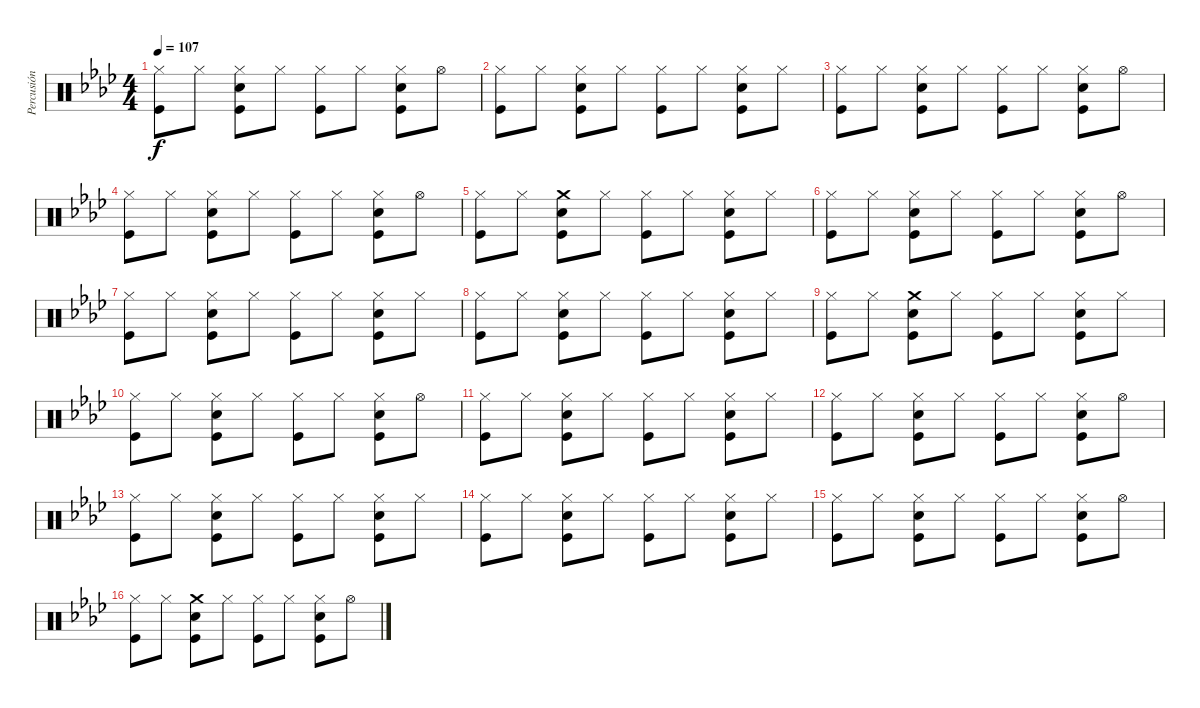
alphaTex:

\track ("Percusión" "Percusión") {instrument percussion}
\staff {score}
\articulation defaults
\ts (4 4)
\tempo 107
\clef neutral
\ks ab
("Hi-Hat (closed)" "Kick (hit)").8{dy f} "Hi-Hat (closed)".8 ("Hi-Hat (closed)" "Snare (hit) 2" "Kick (hit)").8 "Hi-Hat (closed)".8 ("Hi-Hat (closed)" "Kick (hit)").8 "Hi-Hat (closed)".8 ("Hi-Hat (closed)" "Snare (hit) 2" "Kick (hit)").8 "Hi-Hat (open)".8 |
("Hi-Hat (closed)" "Kick (hit)").8 "Hi-Hat (closed)".8 ("Hi-Hat (closed)" "Snare (hit) 2" "Kick (hit)").8 "Hi-Hat (closed)".8 ("Hi-Hat (closed)" "Kick (hit)").8 "Hi-Hat (closed)".8 ("Hi-Hat (closed)" "Snare (hit) 2" "Kick (hit)").8 "Hi-Hat (closed)".8 |
("Hi-Hat (closed)" "Kick (hit)").8 "Hi-Hat (closed)".8 ("Hi-Hat (closed)" "Snare (hit) 2" "Kick (hit)").8 "Hi-Hat (closed)".8 ("Hi-Hat (closed)" "Kick (hit)").8 "Hi-Hat (closed)".8 ("Hi-Hat (closed)" "Snare (hit) 2" "Kick (hit)").8 "Hi-Hat (open)".8 |
("Hi-Hat (closed)" "Kick (hit)").8 "Hi-Hat (closed)".8 ("Hi-Hat (closed)" "Snare (hit) 2" "Kick (hit)").8 "Hi-Hat (closed)".8 ("Hi-Hat (closed)" "Kick (hit)").8 "Hi-Hat (closed)".8 ("Hi-Hat (closed)" "Snare (hit) 2" "Kick (hit)").8 "Hi-Hat (open)".8 |
("Hi-Hat (closed)" "Kick (hit)").8 "Hi-Hat (closed)".8 ("Crash medium (hit)" "Snare (hit) 2" "Kick (hit)").8 "Hi-Hat (closed)".8 ("Hi-Hat (closed)" "Kick (hit)").8 "Hi-Hat (closed)".8 ("Hi-Hat (closed)" "Snare (hit) 2" "Kick (hit)").8 "Hi-Hat (closed)".8 |
("Hi-Hat (closed)" "Kick (hit)").8 "Hi-Hat (closed)".8 ("Hi-Hat (closed)" "Snare (hit) 2" "Kick (hit)").8 "Hi-Hat (closed)".8 ("Hi-Hat (closed)" "Kick (hit)").8 "Hi-Hat (closed)".8 ("Hi-Hat (closed)" "Snare (hit) 2" "Kick (hit)").8 "Hi-Hat (open)".8 |
("Hi-Hat (closed)" "Kick (hit)").8 "Hi-Hat (closed)".8 ("Hi-Hat (closed)" "Snare (hit) 2" "Kick (hit)").8 "Hi-Hat (closed)".8 ("Hi-Hat (closed)" "Kick (hit)").8 "Hi-Hat (closed)".8 ("Hi-Hat (closed)" "Snare (hit) 2" "Kick (hit)").8 "Hi-Hat (closed)".8 |
("Hi-Hat (closed)" "Kick (hit)").8 "Hi-Hat (closed)".8 ("Hi-Hat (closed)" "Snare (hit) 2" "Kick (hit)").8 "Hi-Hat (closed)".8 ("Hi-Hat (closed)" "Kick (hit)").8 "Hi-Hat (closed)".8 ("Hi-Hat (closed)" "Snare (hit) 2" "Kick (hit)").8 "Hi-Hat (closed)".8 |
("Hi-Hat (closed)" "Kick (hit)").8 "Hi-Hat (closed)".8 ("Crash medium (hit)" "Snare (hit) 2" "Kick (hit)").8 "Hi-Hat (closed)".8 ("Hi-Hat (closed)" "Kick (hit)").8 "Hi-Hat (closed)".8 ("Hi-Hat (closed)" "Snare (hit) 2" "Kick (hit)").8 "Hi-Hat (closed)".8 |
("Hi-Hat (closed)" "Kick (hit)").8 "Hi-Hat (closed)".8 ("Hi-Hat (closed)" "Snare (hit) 2" "Kick (hit)").8 "Hi-Hat (closed)".8 ("Hi-Hat (closed)" "Kick (hit)").8 "Hi-Hat (closed)".8 ("Hi-Hat (closed)" "Snare (hit) 2" "Kick (hit)").8 "Hi-Hat (open)".8 |
("Hi-Hat (closed)" "Kick (hit)").8 "Hi-Hat (closed)".8 ("Hi-Hat (closed)" "Snare (hit) 2" "Kick (hit)").8 "Hi-Hat (closed)".8 ("Hi-Hat (closed)" "Kick (hit)").8 "Hi-Hat (closed)".8 ("Hi-Hat (closed)" "Snare (hit) 2" "Kick (hit)").8 "Hi-Hat (closed)".8 |
("Hi-Hat (closed)" "Kick (hit)").8 "Hi-Hat (closed)".8 ("Hi-Hat (closed)" "Snare (hit) 2" "Kick (hit)").8 "Hi-Hat (closed)".8 ("Hi-Hat (closed)" "Kick (hit)").8 "Hi-Hat (closed)".8 ("Hi-Hat (closed)" "Snare (hit) 2" "Kick (hit)").8 "Hi-Hat (open)".8 |
("Hi-Hat (closed)" "Kick (hit)").8 "Hi-Hat (closed)".8 ("Hi-Hat (closed)" "Snare (hit) 2" "Kick (hit)").8 "Hi-Hat (closed)".8 ("Hi-Hat (closed)" "Kick (hit)").8 "Hi-Hat (closed)".8 ("Hi-Hat (closed)" "Snare (hit) 2" "Kick (hit)").8 "Hi-Hat (closed)".8 |
("Hi-Hat (closed)" "Kick (hit)").8 "Hi-Hat (closed)".8 ("Hi-Hat (closed)" "Snare (hit) 2" "Kick (hit)").8 "Hi-Hat (closed)".8 ("Hi-Hat (closed)" "Kick (hit)").8 "Hi-Hat (closed)".8 ("Hi-Hat (closed)" "Snare (hit) 2" "Kick (hit)").8 "Hi-Hat (closed)".8 |
("Hi-Hat (closed)" "Kick (hit)").8 "Hi-Hat (closed)".8 ("Hi-Hat (closed)" "Snare (hit) 2" "Kick (hit)").8 "Hi-Hat (closed)".8 ("Hi-Hat (closed)" "Kick (hit)").8 "Hi-Hat (closed)".8 ("Hi-Hat (closed)" "Snare (hit) 2" "Kick (hit)").8 "Hi-Hat (open)".8 |
("Hi-Hat (closed)" "Kick (hit)").8 "Hi-Hat (closed)".8 ("Crash medium (hit)" "Snare (hit) 2" "Kick (hit)").8 "Hi-Hat (closed)".8 ("Hi-Hat (closed)" "Kick (hit)").8 "Hi-Hat (closed)".8 ("Hi-Hat (closed)" "Snare (hit) 2" "Kick (hit)").8 "Hi-Hat (open)".8
